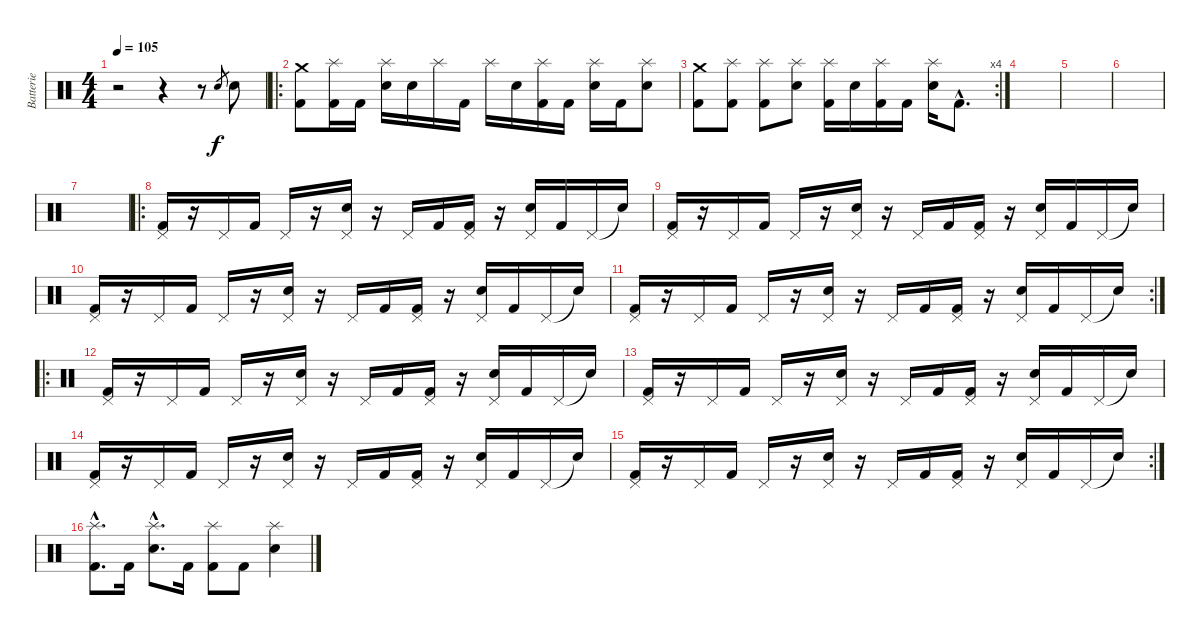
\track ("Batterie" "Batterie") {instrument percussion}
\staff {score}
\articulation defaults
\ts (4 4)
\tempo 105
\clef neutral
\ks c
r.2{dy f} r.4 r.8 "Electric Snare (hit)".8{gr} "Electric Snare (hit)".8 |
\ro
("Crash medium (hit)" "Kick (hit) 2").8 ("Splash (hit)" "Kick (hit) 2").16 "Kick (hit) 2".16 ("Splash (hit)" "Electric Snare (hit)").16 "Electric Snare (hit)".16 "Splash (hit)".16 "Kick (hit) 2".16 "Splash (hit)".16 "Electric Snare (hit)".16 ("Splash (hit)" "Kick (hit) 2").16 "Kick (hit) 2".16 ("Splash (hit)" "Electric Snare (hit)").16 "Kick (hit) 2".16 ("Splash (hit)" "Electric Snare (hit)").8 |
\rc 4
("Crash medium (hit)" "Kick (hit) 2").8 ("Splash (hit)" "Kick (hit) 2").8 ("Splash (hit)" "Kick (hit) 2").8 ("Splash (hit)" "Electric Snare (hit)").8 ("Splash (hit)" "Kick (hit) 2").16 "Electric Snare (hit)".16 ("Splash (hit)" "Kick (hit) 2").16 "Kick (hit) 2".16 ("Splash (hit)" "Electric Snare (hit)").16 "Kick (hit) 2"{hac}.8{d} |
|
|
|
|
\ro
("Pedal Hi-Hat (hit)" "Kick (hit) 2").16 r.16 "Pedal Hi-Hat (hit)".16 "Kick (hit) 2".16 "Pedal Hi-Hat (hit)".16 r.16 ("Pedal Hi-Hat (hit)" "Electric Snare (hit)").16 r.16 "Pedal Hi-Hat (hit)".16 "Kick (hit) 2".16 ("Pedal Hi-Hat (hit)" "Kick (hit) 2").16 r.16 ("Pedal Hi-Hat (hit)" "Electric Snare (hit)").16 "Kick (hit) 2".16 "Pedal Hi-Hat (hit)"{tr (44 64)}.16 "Snare (hit)"{t}.16 |
("Pedal Hi-Hat (hit)" "Kick (hit) 2").16 r.16 "Pedal Hi-Hat (hit)".16 "Kick (hit) 2".16 "Pedal Hi-Hat (hit)".16 r.16 ("Pedal Hi-Hat (hit)" "Electric Snare (hit)").16 r.16 "Pedal Hi-Hat (hit)".16 "Kick (hit) 2".16 ("Pedal Hi-Hat (hit)" "Kick (hit) 2").16 r.16 ("Pedal Hi-Hat (hit)" "Electric Snare (hit)").16 "Kick (hit) 2".16 "Pedal Hi-Hat (hit)"{tr (44 64)}.16 "Snare (hit)"{t}.16 |
("Pedal Hi-Hat (hit)" "Kick (hit) 2").16 r.16 "Pedal Hi-Hat (hit)".16 "Kick (hit) 2".16 "Pedal Hi-Hat (hit)".16 r.16 ("Pedal Hi-Hat (hit)" "Electric Snare (hit)").16 r.16 "Pedal Hi-Hat (hit)".16 "Kick (hit) 2".16 ("Pedal Hi-Hat (hit)" "Kick (hit) 2").16 r.16 ("Pedal Hi-Hat (hit)" "Electric Snare (hit)").16 "Kick (hit) 2".16 "Pedal Hi-Hat (hit)"{tr (44 64)}.16 "Snare (hit)"{t}.16 |
\rc 2
("Pedal Hi-Hat (hit)" "Kick (hit) 2").16 r.16 "Pedal Hi-Hat (hit)".16 "Kick (hit) 2".16 "Pedal Hi-Hat (hit)".16 r.16 ("Pedal Hi-Hat (hit)" "Electric Snare (hit)").16 r.16 "Pedal Hi-Hat (hit)".16 "Kick (hit) 2".16 ("Pedal Hi-Hat (hit)" "Kick (hit) 2").16 r.16 ("Pedal Hi-Hat (hit)" "Electric Snare (hit)").16 "Kick (hit) 2".16 "Pedal Hi-Hat (hit)"{tr (44 64)}.16 "Snare (hit)"{t}.16 |
\ro
("Pedal Hi-Hat (hit)" "Kick (hit) 2").16 r.16 "Pedal Hi-Hat (hit)".16 "Kick (hit) 2".16 "Pedal Hi-Hat (hit)".16 r.16 ("Pedal Hi-Hat (hit)" "Electric Snare (hit)").16 r.16 "Pedal Hi-Hat (hit)".16 "Kick (hit) 2".16 ("Pedal Hi-Hat (hit)" "Kick (hit) 2").16 r.16 ("Pedal Hi-Hat (hit)" "Electric Snare (hit)").16 "Kick (hit) 2".16 "Pedal Hi-Hat (hit)"{tr (44 64)}.16 "Snare (hit)"{t}.16 |
("Pedal Hi-Hat (hit)" "Kick (hit) 2").16 r.16 "Pedal Hi-Hat (hit)".16 "Kick (hit) 2".16 "Pedal Hi-Hat (hit)".16 r.16 ("Pedal Hi-Hat (hit)" "Electric Snare (hit)").16 r.16 "Pedal Hi-Hat (hit)".16 "Kick (hit) 2".16 ("Pedal Hi-Hat (hit)" "Kick (hit) 2").16 r.16 ("Pedal Hi-Hat (hit)" "Electric Snare (hit)").16 "Kick (hit) 2".16 "Pedal Hi-Hat (hit)"{tr (44 64)}.16 "Snare (hit)"{t}.16 |
("Pedal Hi-Hat (hit)" "Kick (hit) 2").16 r.16 "Pedal Hi-Hat (hit)".16 "Kick (hit) 2".16 "Pedal Hi-Hat (hit)".16 r.16 ("Pedal Hi-Hat (hit)" "Electric Snare (hit)").16 r.16 "Pedal Hi-Hat (hit)".16 "Kick (hit) 2".16 ("Pedal Hi-Hat (hit)" "Kick (hit) 2").16 r.16 ("Pedal Hi-Hat (hit)" "Electric Snare (hit)").16 "Kick (hit) 2".16 "Pedal Hi-Hat (hit)"{tr (44 64)}.16 "Snare (hit)"{t}.16 |
\rc 2
("Pedal Hi-Hat (hit)" "Kick (hit) 2").16 r.16 "Pedal Hi-Hat (hit)".16 "Kick (hit) 2".16 "Pedal Hi-Hat (hit)".16 r.16 ("Pedal Hi-Hat (hit)" "Electric Snare (hit)").16 r.16 "Pedal Hi-Hat (hit)".16 "Kick (hit) 2".16 ("Pedal Hi-Hat (hit)" "Kick (hit) 2").16 r.16 ("Pedal Hi-Hat (hit)" "Electric Snare (hit)").16 "Kick (hit) 2".16 "Pedal Hi-Hat (hit)"{tr (44 64)}.16 "Snare (hit)"{t}.16 |
("Splash (hit)"{hac} "Kick (hit) 2"{hac}).8{d} "Kick (hit) 2".16 ("Splash (hit)"{hac} "Electric Snare (hit)"{hac}).8{d} "Kick (hit) 2".16 ("Splash (hit)" "Kick (hit) 2").8 "Kick (hit) 2".8 ("Splash (hit)" "Electric Snare (hit)").4
